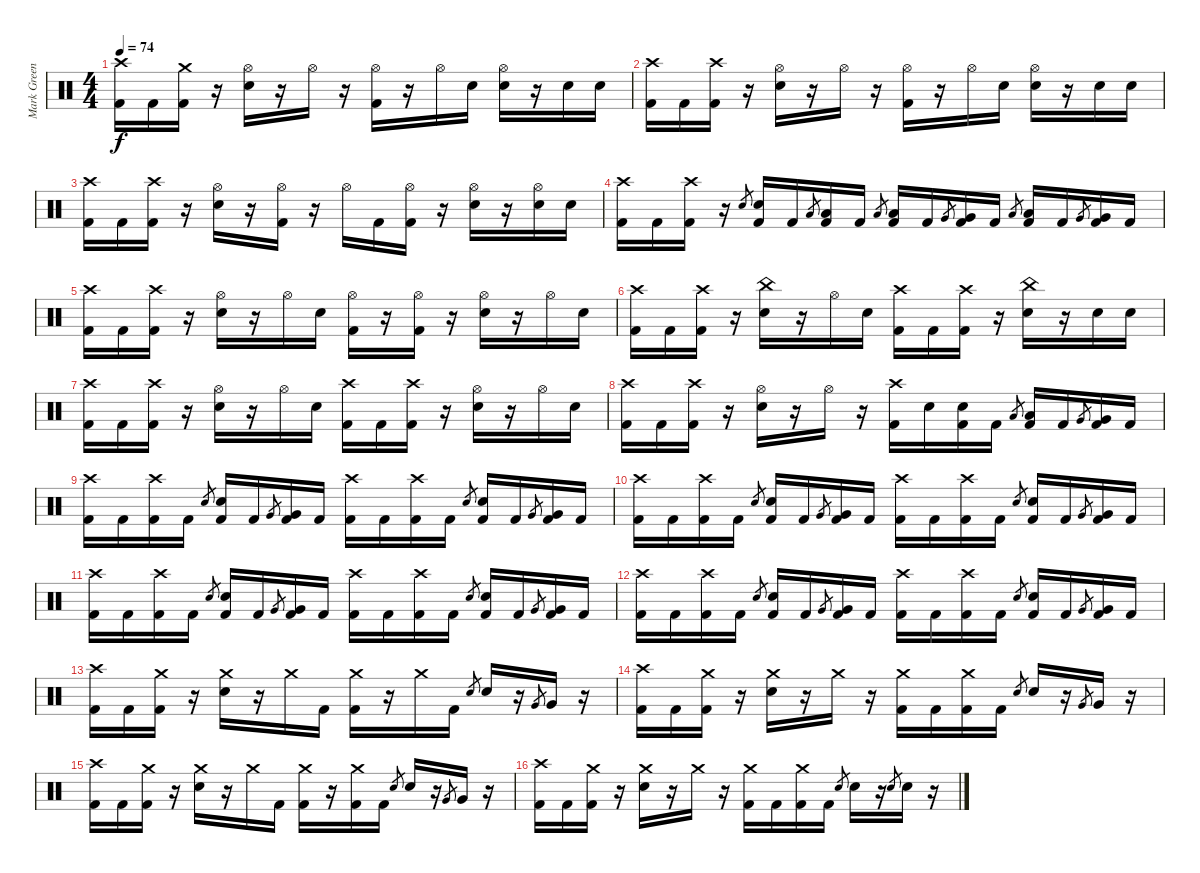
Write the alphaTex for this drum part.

\track ("Mark Greening" "Mark Green") {instrument percussion}
\staff {score}
\articulation defaults
\ts (4 4)
\tempo 74
\clef neutral
\ks c
("Crash high (hit)" "Kick (hit) 2").16{dy f} "Kick (hit) 2".16 ("Crash medium (hit)" "Kick (hit) 2").16 r.16 ("Hi-Hat (open)" "Snare (hit) 2").16 r.16 "Hi-Hat (open)".16 r.16 ("Hi-Hat (open)" "Kick (hit) 2").16 r.16 "Hi-Hat (open)".16 "Snare (hit) 2".16 ("Hi-Hat (open)" "Snare (hit) 2").16 r.16 "Snare (hit) 2".16 "Snare (hit) 2".16 |
("Crash high (hit)" "Kick (hit) 2").16 "Kick (hit) 2".16 ("Crash high (hit)" "Kick (hit) 2").16 r.16 ("Hi-Hat (open)" "Snare (hit) 2").16 r.16 "Hi-Hat (open)".16 r.16 ("Hi-Hat (open)" "Kick (hit) 2").16 r.16 "Hi-Hat (open)".16 "Snare (hit) 2".16 ("Hi-Hat (open)" "Snare (hit) 2").16 r.16 "Snare (hit) 2".16 "Snare (hit) 2".16 |
("Crash high (hit)" "Kick (hit) 2").16 "Kick (hit) 2".16 ("Crash high (hit)" "Kick (hit) 2").16 r.16 ("Hi-Hat (open)" "Snare (hit) 2").16 r.16 ("Hi-Hat (open)" "Kick (hit) 2").16 r.16 "Hi-Hat (open)".16 "Kick (hit) 2".16 ("Hi-Hat (open)" "Kick (hit) 2").16 r.16 ("Hi-Hat (open)" "Snare (hit) 2").16 r.16 ("Hi-Hat (open)" "Snare (hit) 2").16 "Snare (hit) 2".16 |
("Crash high (hit)" "Kick (hit) 2").16 "Kick (hit) 2".16 ("Crash high (hit)" "Kick (hit) 2").16 r.16 "Snare (hit) 2".8{gr} ("Snare (hit) 2" "Kick (hit) 2").16 "Kick (hit) 2".16 "Low Tom (hit)".8{gr} ("Low Tom (hit)" "Kick (hit) 2").16 "Kick (hit) 2".16 "Low Tom (hit)".8{gr} ("Low Tom (hit)" "Kick (hit) 2").16 "Kick (hit) 2".16 "Very Low Tom (hit)".8{gr} ("Very Low Tom (hit)" "Kick (hit) 2").16 "Kick (hit) 2".16 "Low Tom (hit)".8{gr} ("Low Tom (hit)" "Kick (hit) 2").16 "Kick (hit) 2".16 "Very Low Tom (hit)".8{gr} ("Very Low Tom (hit)" "Kick (hit) 2").16 "Kick (hit) 2".16 |
("Crash high (hit)" "Kick (hit) 2").16 "Kick (hit) 2".16 ("Crash high (hit)" "Kick (hit) 2").16 r.16 ("Hi-Hat (open)" "Snare (hit) 2").16 r.16 "Hi-Hat (open)".16 "Snare (hit) 2".16 ("Hi-Hat (open)" "Kick (hit) 2").16 r.16 ("Hi-Hat (open)" "Kick (hit) 2").16 r.16 ("Hi-Hat (open)" "Snare (hit) 2").16 r.16 "Hi-Hat (open)".16 "Snare (hit) 2".16 |
("Crash high (hit)" "Kick (hit) 2").16 "Kick (hit) 2".16 ("Crash high (hit)" "Kick (hit) 2").16 r.16 ("China (hit)" "Snare (hit) 2").16 r.16 "Hi-Hat (open)".16 "Snare (hit) 2".16 ("Crash high (hit)" "Kick (hit) 2").16 "Kick (hit) 2".16 ("Crash high (hit)" "Kick (hit) 2").16 r.16 ("China (hit)" "Snare (hit) 2").16 r.16 "Snare (hit) 2".16 "Snare (hit) 2".16 |
("Crash high (hit)" "Kick (hit) 2").16 "Kick (hit) 2".16 ("Crash high (hit)" "Kick (hit) 2").16 r.16 ("Hi-Hat (open)" "Snare (hit) 2").16 r.16 "Hi-Hat (open)".16 "Snare (hit) 2".16 ("Crash high (hit)" "Kick (hit) 2").16 "Kick (hit) 2".16 ("Crash high (hit)" "Kick (hit) 2").16 r.16 ("Hi-Hat (open)" "Snare (hit) 2").16 r.16 "Hi-Hat (open)".16 "Snare (hit) 2".16 |
("Crash high (hit)" "Kick (hit) 2").16 "Kick (hit) 2".16 ("Crash high (hit)" "Kick (hit) 2").16 r.16 ("Hi-Hat (open)" "Snare (hit) 2").16 r.16 "Hi-Hat (open)".16 r.16 ("Crash high (hit)" "Kick (hit) 2").16 "Snare (hit) 2".16 ("Snare (hit) 2" "Kick (hit) 2").16 "Kick (hit) 2".16 "Low Tom (hit)".8{gr} ("Low Tom (hit)" "Kick (hit) 2").16 "Kick (hit) 2".16 "Very Low Tom (hit)".8{gr} ("Very Low Tom (hit)" "Kick (hit) 2").16 "Kick (hit) 2".16 |
("Crash high (hit)" "Kick (hit) 2").16 "Kick (hit) 2".16 ("Crash high (hit)" "Kick (hit) 2").16 "Kick (hit) 2".16 "Snare (hit) 2".8{gr} ("Snare (hit) 2" "Kick (hit) 2").16 "Kick (hit) 2".16 "Very Low Tom (hit)".8{gr} ("Very Low Tom (hit)" "Kick (hit) 2").16 "Kick (hit) 2".16 ("Crash high (hit)" "Kick (hit) 2").16 "Kick (hit) 2".16 ("Crash high (hit)" "Kick (hit) 2").16 "Kick (hit) 2".16 "Snare (hit) 2".8{gr} ("Snare (hit) 2" "Kick (hit) 2").16 "Kick (hit) 2".16 "Very Low Tom (hit)".8{gr} ("Very Low Tom (hit)" "Kick (hit) 2").16 "Kick (hit) 2".16 |
("Crash high (hit)" "Kick (hit) 2").16 "Kick (hit) 2".16 ("Crash high (hit)" "Kick (hit) 2").16 "Kick (hit) 2".16 "Snare (hit) 2".8{gr} ("Snare (hit) 2" "Kick (hit) 2").16 "Kick (hit) 2".16 "Very Low Tom (hit)".8{gr} ("Very Low Tom (hit)" "Kick (hit) 2").16 "Kick (hit) 2".16 ("Crash high (hit)" "Kick (hit) 2").16 "Kick (hit) 2".16 ("Crash high (hit)" "Kick (hit) 2").16 "Kick (hit) 2".16 "Snare (hit) 2".8{gr} ("Snare (hit) 2" "Kick (hit) 2").16 "Kick (hit) 2".16 "Very Low Tom (hit)".8{gr} ("Very Low Tom (hit)" "Kick (hit) 2").16 "Kick (hit) 2".16 |
("Crash high (hit)" "Kick (hit) 2").16 "Kick (hit) 2".16 ("Crash high (hit)" "Kick (hit) 2").16 "Kick (hit) 2".16 "Snare (hit) 2".8{gr} ("Snare (hit) 2" "Kick (hit) 2").16 "Kick (hit) 2".16 "Very Low Tom (hit)".8{gr} ("Very Low Tom (hit)" "Kick (hit) 2").16 "Kick (hit) 2".16 ("Crash high (hit)" "Kick (hit) 2").16 "Kick (hit) 2".16 ("Crash high (hit)" "Kick (hit) 2").16 "Kick (hit) 2".16 "Snare (hit) 2".8{gr} ("Snare (hit) 2" "Kick (hit) 2").16 "Kick (hit) 2".16 "Very Low Tom (hit)".8{gr} ("Very Low Tom (hit)" "Kick (hit) 2").16 "Kick (hit) 2".16 |
("Crash high (hit)" "Kick (hit) 2").16 "Kick (hit) 2".16 ("Crash high (hit)" "Kick (hit) 2").16 "Kick (hit) 2".16 "Snare (hit) 2".8{gr} ("Snare (hit) 2" "Kick (hit) 2").16 "Kick (hit) 2".16 "Very Low Tom (hit)".8{gr} ("Very Low Tom (hit)" "Kick (hit) 2").16 "Kick (hit) 2".16 ("Crash high (hit)" "Kick (hit) 2").16 "Kick (hit) 2".16 ("Crash high (hit)" "Kick (hit) 2").16 "Kick (hit) 2".16 "Snare (hit) 2".8{gr} ("Snare (hit) 2" "Kick (hit) 2").16 "Kick (hit) 2".16 "Very Low Tom (hit)".8{gr} ("Very Low Tom (hit)" "Kick (hit) 2").16 "Kick (hit) 2".16 |
("Crash high (hit)" "Kick (hit) 2").16 "Kick (hit) 2".16 ("Crash medium (hit)" "Kick (hit) 2").16 r.16 ("Crash medium (hit)" "Snare (hit) 2").16 r.16 "Crash medium (hit)".16 "Kick (hit) 2".16 ("Crash medium (hit)" "Kick (hit) 2").16 r.16 "Crash medium (hit)".16 "Kick (hit) 2".16 "Snare (hit) 2".8{gr} "Snare (hit) 2".16 r.16 "Very Low Tom (hit)".8{gr} "Very Low Tom (hit)".16 r.16 |
("Crash high (hit)" "Kick (hit) 2").16 "Kick (hit) 2".16 ("Crash medium (hit)" "Kick (hit) 2").16 r.16 ("Crash medium (hit)" "Snare (hit) 2").16 r.16 "Crash medium (hit)".16 r.16 ("Crash medium (hit)" "Kick (hit) 2").16 "Kick (hit) 2".16 ("Crash medium (hit)" "Kick (hit) 2").16 "Kick (hit) 2".16 "Snare (hit) 2".8{gr} "Snare (hit) 2".16 r.16 "Very Low Tom (hit)".8{gr} "Very Low Tom (hit)".16 r.16 |
("Crash high (hit)" "Kick (hit) 2").16 "Kick (hit) 2".16 ("Crash medium (hit)" "Kick (hit) 2").16 r.16 ("Crash medium (hit)" "Snare (hit) 2").16 r.16 "Crash medium (hit)".16 "Kick (hit) 2".16 ("Crash medium (hit)" "Kick (hit) 2").16 r.16 ("Crash medium (hit)" "Kick (hit) 2").16 "Kick (hit) 2".16 "Snare (hit) 2".8{gr} "Snare (hit) 2".16 r.16 "Very Low Tom (hit)".8{gr} "Very Low Tom (hit)".16 r.16 |
("Crash high (hit)" "Kick (hit) 2").16 "Kick (hit) 2".16 ("Crash medium (hit)" "Kick (hit) 2").16 r.16 ("Crash medium (hit)" "Snare (hit) 2").16 r.16 "Crash medium (hit)".16 r.16 ("Crash medium (hit)" "Kick (hit) 2").16 "Kick (hit) 2".16 ("Crash medium (hit)" "Kick (hit) 2").16 "Kick (hit) 2".16 "Snare (hit) 2".8{gr} "Snare (hit) 2".16 r.16 "Snare (hit) 2".8{gr} "Snare (hit) 2".16 r.16
